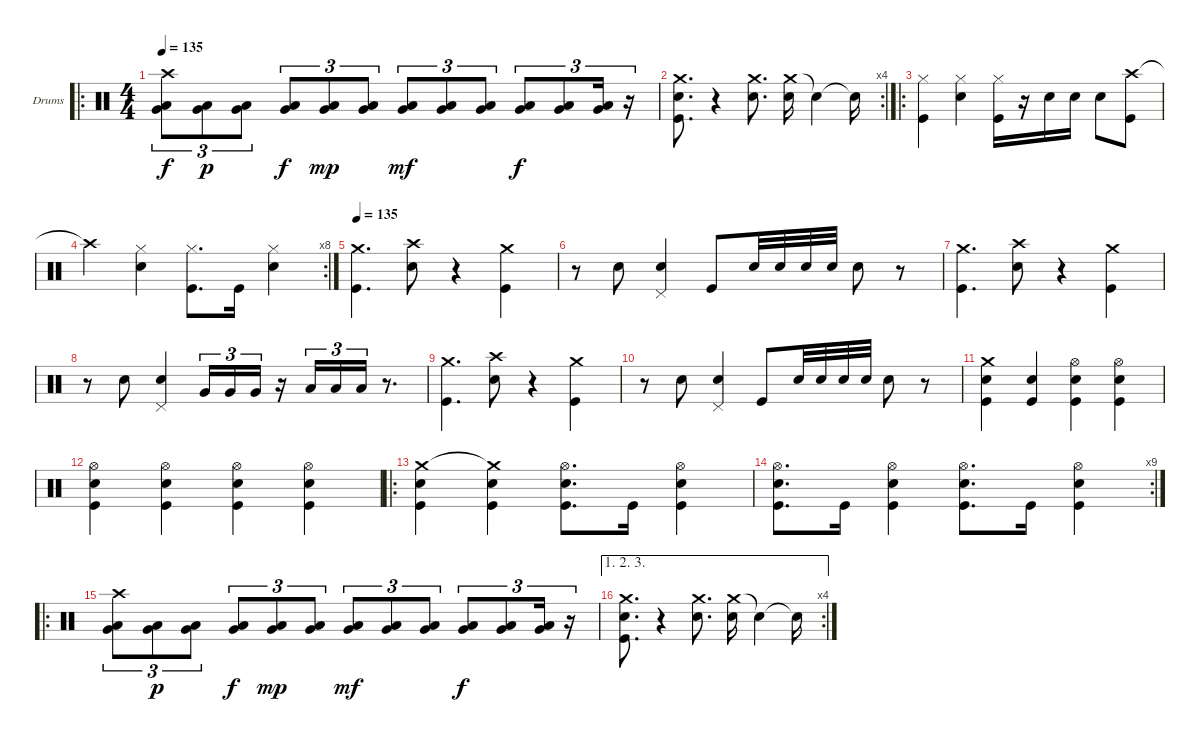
\bracketExtendMode groupsimilarinstruments
\firstSystemTrackNameOrientation horizontal
\otherSystemsTrackNameOrientation horizontal
\track ("Drumkit" "Drums") {instrument percussion}
\staff {score}
\articulation defaults
\ro
\ts (4 4)
\tempo 135
\clef neutral
\ks c
("Crash high (hit)" "Very Low Tom (hit)" "Low Tom (hit)").8{tu (3 2) dy f} ("Very Low Tom (hit)" "Low Tom (hit)").8{tu (3 2) dy p} ("Very Low Tom (hit)" "Low Tom (hit)").8{tu (3 2)} ("Very Low Tom (hit)" "Low Tom (hit)").8{tu (3 2) dy f} ("Very Low Tom (hit)" "Low Tom (hit)").8{tu (3 2) dy mp} ("Very Low Tom (hit)" "Low Tom (hit)").8{tu (3 2)} ("Very Low Tom (hit)" "Low Tom (hit)").8{tu (3 2) dy mf} ("Very Low Tom (hit)" "Low Tom (hit)").8{tu (3 2)} ("Very Low Tom (hit)" "Low Tom (hit)").8{tu (3 2)} ("Very Low Tom (hit)" "Low Tom (hit)").8{tu (3 2) dy f} ("Very Low Tom (hit)" "Low Tom (hit)").8{tu (3 2)} ("Very Low Tom (hit)" "Low Tom (hit)").16{tu (3 2)} r.16{tu (3 2)} |
\rc 4
("Crash medium (hit)" "Kick (hit)" "Snare (hit) 2").8{d} r.4 ("Crash medium (hit)" "Snare (hit) 2").8{d} ("Crash medium (hit)" "Snare (hit) 2").16 "Snare (hit) 2"{t}.4 "Snare (hit) 2"{t}.16 |
\ro
("Hi-Hat (closed)" "Kick (hit)").4 ("Hi-Hat (closed)" "Snare (hit) 2").4 ("Hi-Hat (closed)" "Kick (hit)").16 r.16 "Snare (hit) 2".16 "Snare (hit) 2".16 "Snare (hit) 2".8 ("Crash high (hit)" "Kick (hit)").8 |
\rc 8 "Crash high (hit)"{t}.4
("Hi-Hat (closed)" "Snare (hit) 2").4 ("Hi-Hat (closed)" "Kick (hit)").8{d} "Kick (hit)".16 ("Hi-Hat (closed)" "Snare (hit) 2").4 |
\tempo 135
("Crash medium (hit)" "Kick (hit)").4{d} ("Crash high (hit)" "Snare (hit) 2").8 r.4 ("Crash medium (hit)" "Kick (hit)").4 |
r.8 "Snare (hit) 2".8 ("Pedal Hi-Hat (hit)" "Snare (hit) 2").4 "Kick (hit)".8 "Snare (hit) 2".32 "Snare (hit) 2".32 "Snare (hit) 2".32 "Snare (hit) 2".32 "Snare (hit) 2".8 r.8 |
("Crash medium (hit)" "Kick (hit)").4{d} ("Crash high (hit)" "Snare (hit) 2").8 r.4 ("Crash medium (hit)" "Kick (hit)").4 |
r.8 "Snare (hit) 2".8 ("Pedal Hi-Hat (hit)" "Snare (hit) 2").4 "Very Low Tom (hit)".16{tu (3 2)} "Very Low Tom (hit)".16{tu (3 2)} "Very Low Tom (hit)".16{tu (3 2)} r.16 "Low Tom (hit)".16{tu (3 2)} "Low Tom (hit)".16{tu (3 2)} "Low Tom (hit)".16{tu (3 2)} r.8{d} |
("Crash medium (hit)" "Kick (hit)").4{d} ("Crash high (hit)" "Snare (hit) 2").8 r.4 ("Crash medium (hit)" "Kick (hit)").4 |
r.8 "Snare (hit) 2".8 ("Pedal Hi-Hat (hit)" "Snare (hit) 2").4 "Kick (hit)".8 "Snare (hit) 2".32 "Snare (hit) 2".32 "Snare (hit) 2".32 "Snare (hit) 2".32 "Snare (hit) 2".8 r.8 |
("Crash medium (hit)" "Kick (hit)" "Snare (hit) 2").4 ("Kick (hit)" "Snare (hit) 2").4 ("Hi-Hat (open)" "Kick (hit)" "Snare (hit) 2").4 ("Hi-Hat (open)" "Kick (hit)" "Snare (hit) 2").4 |
("Hi-Hat (open)" "Kick (hit)" "Snare (hit) 2").4 ("Hi-Hat (open)" "Kick (hit)" "Snare (hit) 2").4 ("Hi-Hat (open)" "Kick (hit)" "Snare (hit) 2").4 ("Hi-Hat (open)" "Kick (hit)" "Snare (hit) 2").4 |
\ro
("Crash medium (hit)" "Kick (hit)" "Snare (hit) 2").4 ("Crash medium (hit)"{t} "Kick (hit)" "Snare (hit) 2").4 ("Hi-Hat (open)" "Kick (hit)" "Snare (hit) 2").8{d} "Kick (hit)".16 ("Hi-Hat (open)" "Kick (hit)" "Snare (hit) 2").4 |
\rc 9
("Hi-Hat (open)" "Kick (hit)" "Snare (hit) 2").8{d} "Kick (hit)".16 ("Hi-Hat (open)" "Kick (hit)" "Snare (hit) 2").4 ("Hi-Hat (open)" "Kick (hit)" "Snare (hit) 2").8{d} "Kick (hit)".16 ("Hi-Hat (open)" "Kick (hit)" "Snare (hit) 2").4 |
\ro
("Crash high (hit)" "Very Low Tom (hit)" "Low Tom (hit)").8{tu (3 2)} ("Very Low Tom (hit)" "Low Tom (hit)").8{tu (3 2) dy p} ("Very Low Tom (hit)" "Low Tom (hit)").8{tu (3 2)} ("Very Low Tom (hit)" "Low Tom (hit)").8{tu (3 2) dy f} ("Very Low Tom (hit)" "Low Tom (hit)").8{tu (3 2) dy mp} ("Very Low Tom (hit)" "Low Tom (hit)").8{tu (3 2)} ("Very Low Tom (hit)" "Low Tom (hit)").8{tu (3 2) dy mf} ("Very Low Tom (hit)" "Low Tom (hit)").8{tu (3 2)} ("Very Low Tom (hit)" "Low Tom (hit)").8{tu (3 2)} ("Very Low Tom (hit)" "Low Tom (hit)").8{tu (3 2) dy f} ("Very Low Tom (hit)" "Low Tom (hit)").8{tu (3 2)} ("Very Low Tom (hit)" "Low Tom (hit)").16{tu (3 2)} r.16{tu (3 2)} |
\ae (1 2 3)
\rc 4
("Crash medium (hit)" "Kick (hit)" "Snare (hit) 2").8{d} r.4 ("Crash medium (hit)" "Snare (hit) 2").8{d} ("Crash medium (hit)" "Snare (hit) 2").16 "Snare (hit) 2"{t}.4 "Snare (hit) 2"{t}.16
